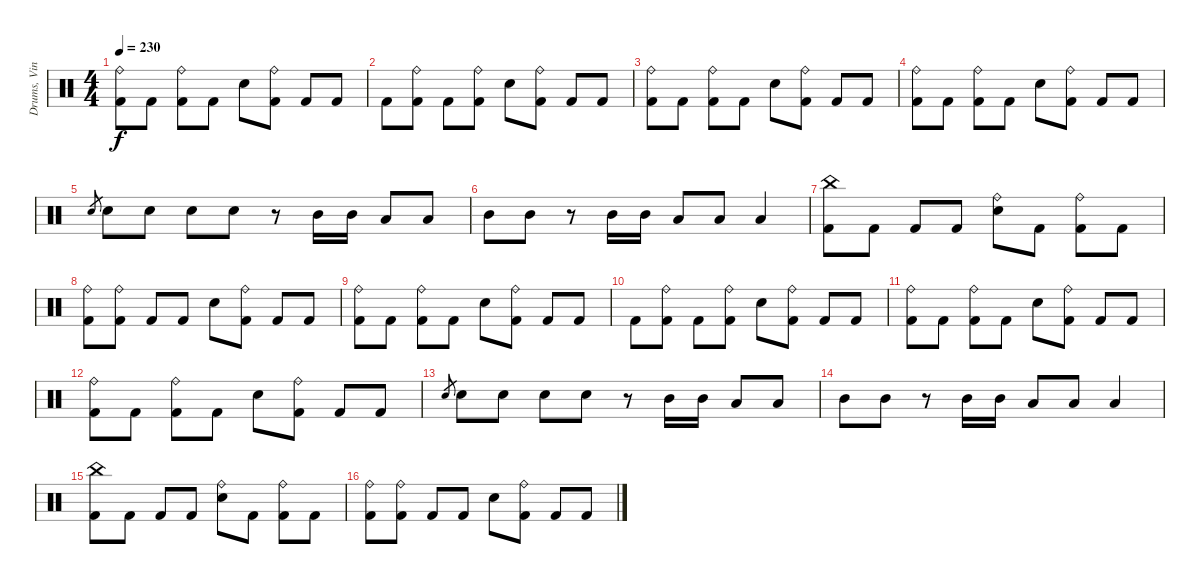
\track ("Drums, Vinnie" "Drums, Vin") {instrument percussion}
\staff {score}
\articulation defaults
\ts (4 4)
\tempo 230
\clef neutral
\ks c
("Ride (bell)" "Kick (hit) 2").8{dy f} "Kick (hit) 2".8 ("Ride (bell)" "Kick (hit) 2").8 "Kick (hit) 2".8 "Electric Snare (hit)".8 ("Ride (bell)" "Kick (hit) 2").8 "Kick (hit) 2".8 "Kick (hit) 2".8 |
"Kick (hit) 2".8 ("Ride (bell)" "Kick (hit) 2").8 "Kick (hit) 2".8 ("Ride (bell)" "Kick (hit) 2").8 "Electric Snare (hit)".8 ("Ride (bell)" "Kick (hit) 2").8 "Kick (hit) 2".8 "Kick (hit) 2".8 |
("Ride (bell)" "Kick (hit) 2").8 "Kick (hit) 2".8 ("Ride (bell)" "Kick (hit) 2").8 "Kick (hit) 2".8 "Electric Snare (hit)".8 ("Ride (bell)" "Kick (hit) 2").8 "Kick (hit) 2".8 "Kick (hit) 2".8 |
("Ride (bell)" "Kick (hit) 2").8 "Kick (hit) 2".8 ("Ride (bell)" "Kick (hit) 2").8 "Kick (hit) 2".8 "Electric Snare (hit)".8 ("Ride (bell)" "Kick (hit) 2").8 "Kick (hit) 2".8 "Kick (hit) 2".8 |
"Electric Snare (hit)".8{gr} "Electric Snare (hit)".8 "Electric Snare (hit)".8 "Electric Snare (hit)".8 "Electric Snare (hit)".8 r.8 "Mid Tom (hit)".16 "Mid Tom (hit)".16 "Low Tom (hit)".8 "Low Tom (hit)".8 |
"Mid Tom (hit)".8 "Mid Tom (hit)".8 r.8 "Mid Tom (hit)".16 "Mid Tom (hit)".16 "Low Tom (hit)".8 "Low Tom (hit)".8 "Low Tom (hit)".4 |
("China (hit)" "Kick (hit) 2").8 "Kick (hit) 2".8 "Kick (hit) 2".8 "Kick (hit) 2".8 ("Ride (bell)" "Electric Snare (hit)").8 "Kick (hit) 2".8 ("Ride (bell)" "Kick (hit) 2").8 "Kick (hit) 2".8 |
("Ride (bell)" "Kick (hit) 2").8 ("Ride (bell)" "Kick (hit) 2").8 "Kick (hit) 2".8 "Kick (hit) 2".8 "Electric Snare (hit)".8 ("Ride (bell)" "Kick (hit) 2").8 "Kick (hit) 2".8 "Kick (hit) 2".8 |
("Ride (bell)" "Kick (hit) 2").8 "Kick (hit) 2".8 ("Ride (bell)" "Kick (hit) 2").8 "Kick (hit) 2".8 "Electric Snare (hit)".8 ("Ride (bell)" "Kick (hit) 2").8 "Kick (hit) 2".8 "Kick (hit) 2".8 |
"Kick (hit) 2".8 ("Ride (bell)" "Kick (hit) 2").8 "Kick (hit) 2".8 ("Ride (bell)" "Kick (hit) 2").8 "Electric Snare (hit)".8 ("Ride (bell)" "Kick (hit) 2").8 "Kick (hit) 2".8 "Kick (hit) 2".8 |
("Ride (bell)" "Kick (hit) 2").8 "Kick (hit) 2".8 ("Ride (bell)" "Kick (hit) 2").8 "Kick (hit) 2".8 "Electric Snare (hit)".8 ("Ride (bell)" "Kick (hit) 2").8 "Kick (hit) 2".8 "Kick (hit) 2".8 |
("Ride (bell)" "Kick (hit) 2").8 "Kick (hit) 2".8 ("Ride (bell)" "Kick (hit) 2").8 "Kick (hit) 2".8 "Electric Snare (hit)".8 ("Ride (bell)" "Kick (hit) 2").8 "Kick (hit) 2".8 "Kick (hit) 2".8 |
"Electric Snare (hit)".8{gr} "Electric Snare (hit)".8 "Electric Snare (hit)".8 "Electric Snare (hit)".8 "Electric Snare (hit)".8 r.8 "Mid Tom (hit)".16 "Mid Tom (hit)".16 "Low Tom (hit)".8 "Low Tom (hit)".8 |
"Mid Tom (hit)".8 "Mid Tom (hit)".8 r.8 "Mid Tom (hit)".16 "Mid Tom (hit)".16 "Low Tom (hit)".8 "Low Tom (hit)".8 "Low Tom (hit)".4 |
("China (hit)" "Kick (hit) 2").8 "Kick (hit) 2".8 "Kick (hit) 2".8 "Kick (hit) 2".8 ("Ride (bell)" "Electric Snare (hit)").8 "Kick (hit) 2".8 ("Ride (bell)" "Kick (hit) 2").8 "Kick (hit) 2".8 |
("Ride (bell)" "Kick (hit) 2").8 ("Ride (bell)" "Kick (hit) 2").8 "Kick (hit) 2".8 "Kick (hit) 2".8 "Electric Snare (hit)".8 ("Ride (bell)" "Kick (hit) 2").8 "Kick (hit) 2".8 "Kick (hit) 2".8
